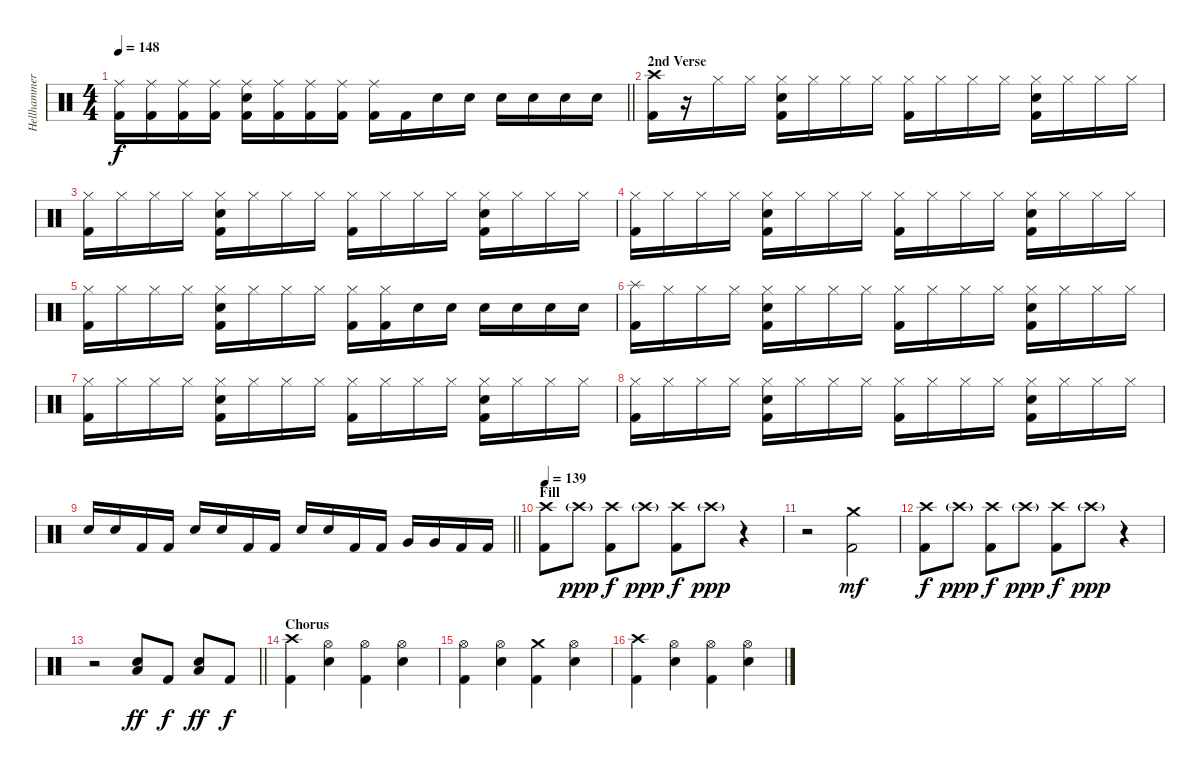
\track ("Hellhammer" "Hellhammer") {instrument percussion}
\staff {score}
\articulation defaults
\ts (4 4)
\tempo 148
\clef neutral
\barLineRight lightlight
\ks c
("Ride (middle)" "Kick (hit) 2").16{dy f} ("Ride (middle)" "Kick (hit) 2").16 ("Ride (middle)" "Kick (hit) 2").16 ("Ride (middle)" "Kick (hit) 2").16 ("Ride (middle)" "Snare (hit) 2" "Kick (hit) 2").16 ("Ride (middle)" "Kick (hit) 2").16 ("Ride (middle)" "Kick (hit) 2").16 ("Ride (middle)" "Kick (hit) 2").16 ("Ride (middle)" "Kick (hit) 2").16 "Kick (hit) 2".16 "Snare (hit) 2".16 "Snare (hit) 2".16 "Snare (hit) 2".16 "Snare (hit) 2".16 "Snare (hit) 2".16 "Snare (hit) 2".16 |
\section ("" "2nd Verse")
("Crash high (hit)" "Kick (hit) 2").16 r.16 "Hi-Hat (closed)".16 "Hi-Hat (closed)".16 ("Hi-Hat (closed)" "Snare (hit) 2" "Kick (hit) 2").16 "Hi-Hat (closed)".16 "Hi-Hat (closed)".16 "Hi-Hat (closed)".16 ("Hi-Hat (closed)" "Kick (hit) 2").16 "Hi-Hat (closed)".16 "Hi-Hat (closed)".16 "Hi-Hat (closed)".16 ("Hi-Hat (closed)" "Snare (hit) 2" "Kick (hit) 2").16 "Hi-Hat (closed)".16 "Hi-Hat (closed)".16 "Hi-Hat (closed)".16 |
("Hi-Hat (closed)" "Kick (hit) 2").16 "Hi-Hat (closed)".16 "Hi-Hat (closed)".16 "Hi-Hat (closed)".16 ("Hi-Hat (closed)" "Snare (hit) 2" "Kick (hit) 2").16 "Hi-Hat (closed)".16 "Hi-Hat (closed)".16 "Hi-Hat (closed)".16 ("Hi-Hat (closed)" "Kick (hit) 2").16 "Hi-Hat (closed)".16 "Hi-Hat (closed)".16 "Hi-Hat (closed)".16 ("Hi-Hat (closed)" "Snare (hit) 2" "Kick (hit) 2").16 "Hi-Hat (closed)".16 "Hi-Hat (closed)".16 "Hi-Hat (closed)".16 |
("Hi-Hat (closed)" "Kick (hit) 2").16 "Hi-Hat (closed)".16 "Hi-Hat (closed)".16 "Hi-Hat (closed)".16 ("Hi-Hat (closed)" "Snare (hit) 2" "Kick (hit) 2").16 "Hi-Hat (closed)".16 "Hi-Hat (closed)".16 "Hi-Hat (closed)".16 ("Hi-Hat (closed)" "Kick (hit) 2").16 "Hi-Hat (closed)".16 "Hi-Hat (closed)".16 "Hi-Hat (closed)".16 ("Hi-Hat (closed)" "Snare (hit) 2" "Kick (hit) 2").16 "Hi-Hat (closed)".16 "Hi-Hat (closed)".16 "Hi-Hat (closed)".16 |
("Hi-Hat (closed)" "Kick (hit) 2").16 "Hi-Hat (closed)".16 "Hi-Hat (closed)".16 "Hi-Hat (closed)".16 ("Hi-Hat (closed)" "Snare (hit) 2" "Kick (hit) 2").16 "Hi-Hat (closed)".16 "Hi-Hat (closed)".16 "Hi-Hat (closed)".16 ("Hi-Hat (closed)" "Kick (hit) 2").16 ("Hi-Hat (closed)" "Kick (hit) 2").16 "Snare (hit) 2".16 "Snare (hit) 2".16 "Snare (hit) 2".16 "Snare (hit) 2".16 "Snare (hit) 2".16 "Snare (hit) 2".16 |
("Splash (hit)" "Kick (hit) 2").16 "Hi-Hat (closed)".16 "Hi-Hat (closed)".16 "Hi-Hat (closed)".16 ("Hi-Hat (closed)" "Snare (hit) 2" "Kick (hit) 2").16 "Hi-Hat (closed)".16 "Hi-Hat (closed)".16 "Hi-Hat (closed)".16 ("Hi-Hat (closed)" "Kick (hit) 2").16 "Hi-Hat (closed)".16 "Hi-Hat (closed)".16 "Hi-Hat (closed)".16 ("Hi-Hat (closed)" "Snare (hit) 2" "Kick (hit) 2").16 "Hi-Hat (closed)".16 "Hi-Hat (closed)".16 "Hi-Hat (closed)".16 |
("Hi-Hat (closed)" "Kick (hit) 2").16 "Hi-Hat (closed)".16 "Hi-Hat (closed)".16 "Hi-Hat (closed)".16 ("Hi-Hat (closed)" "Snare (hit) 2" "Kick (hit) 2").16 "Hi-Hat (closed)".16 "Hi-Hat (closed)".16 "Hi-Hat (closed)".16 ("Hi-Hat (closed)" "Kick (hit) 2").16 "Hi-Hat (closed)".16 "Hi-Hat (closed)".16 "Hi-Hat (closed)".16 ("Hi-Hat (closed)" "Snare (hit) 2" "Kick (hit) 2").16 "Hi-Hat (closed)".16 "Hi-Hat (closed)".16 "Hi-Hat (closed)".16 |
("Hi-Hat (closed)" "Kick (hit) 2").16 "Hi-Hat (closed)".16 "Hi-Hat (closed)".16 "Hi-Hat (closed)".16 ("Hi-Hat (closed)" "Snare (hit) 2" "Kick (hit) 2").16 "Hi-Hat (closed)".16 "Hi-Hat (closed)".16 "Hi-Hat (closed)".16 ("Hi-Hat (closed)" "Kick (hit) 2").16 "Hi-Hat (closed)".16 "Hi-Hat (closed)".16 "Hi-Hat (closed)".16 ("Hi-Hat (closed)" "Snare (hit) 2" "Kick (hit) 2").16 "Hi-Hat (closed)".16 "Hi-Hat (closed)".16 "Hi-Hat (closed)".16 |
\barLineRight lightlight "Snare (hit) 2".16 "Snare (hit) 2".16 "Kick (hit) 2".16 "Kick (hit) 2".16 "Snare (hit) 2".16 "Snare (hit) 2".16 "Kick (hit) 2".16 "Kick (hit) 2".16 "Snare (hit) 2".16 "Snare (hit) 2".16 "Kick (hit) 2".16 "Kick (hit) 2".16 "Very Low Tom (hit)".16 "Very Low Tom (hit)".16 "Kick (hit) 2".16 "Kick (hit) 2".16
|
\section ("" "Fill")
\tempo 139
("Crash high (hit)" "Kick (hit) 2").8 "Crash high (hit)"{g}.8{dy ppp} ("Crash high (hit)" "Kick (hit) 2").8{dy f} "Crash high (hit)"{g}.8{dy ppp} ("Crash high (hit)" "Kick (hit) 2").8{dy f} "Crash high (hit)"{g}.8{dy ppp} r.4 |
r.2 ("Crash medium (hit)" "Kick (hit) 2").2{dy mf} |
("Crash high (hit)" "Kick (hit) 2").8{dy f} "Crash high (hit)"{g}.8{dy ppp} ("Crash high (hit)" "Kick (hit) 2").8{dy f} "Crash high (hit)"{g}.8{dy ppp} ("Crash high (hit)" "Kick (hit) 2").8{dy f} "Crash high (hit)"{g}.8{dy ppp} r.4 |
\barLineRight lightlight
r.2 ("Low Floor Tom (hit)" "Snare (hit) 2").8{dy ff} "Kick (hit) 2".8{dy f} ("Low Floor Tom (hit)" "Snare (hit) 2").8{dy ff} "Kick (hit) 2".8{dy f} |
\section ("" "Chorus")
("Crash high (hit)" "Kick (hit) 2").4 ("Hi-Hat (open)" "Snare (hit) 2").4 ("Hi-Hat (open)" "Kick (hit) 2").4 ("Hi-Hat (open)" "Snare (hit) 2").4 |
("Hi-Hat (open)" "Kick (hit) 2").4 ("Hi-Hat (open)" "Snare (hit) 2").4 ("Crash medium (hit)" "Kick (hit) 2").4 ("Hi-Hat (open)" "Snare (hit) 2").4 |
("Crash high (hit)" "Kick (hit) 2").4 ("Hi-Hat (open)" "Snare (hit) 2").4 ("Hi-Hat (open)" "Kick (hit) 2").4 ("Hi-Hat (open)" "Snare (hit) 2").4
